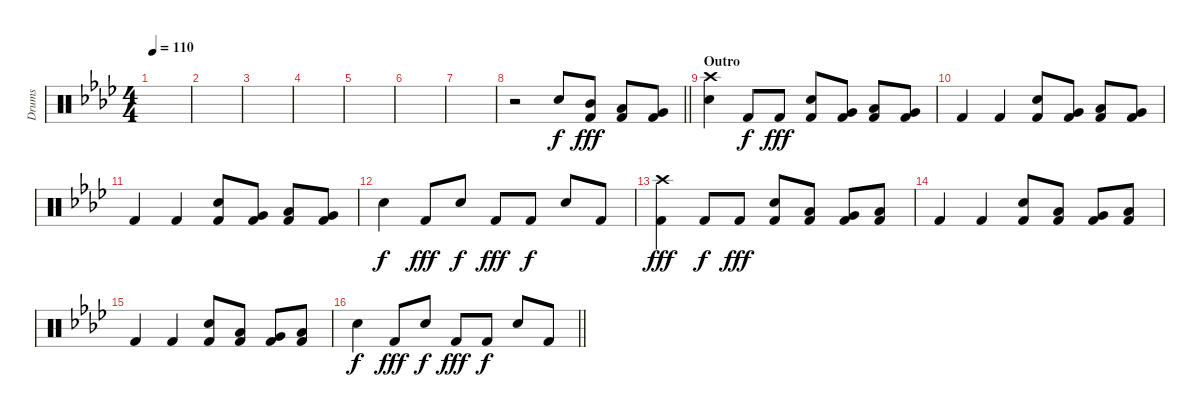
\track ("Drums" "Drums") {instrument percussion}
\staff {score}
\articulation defaults
\ts (4 4)
\tempo 110
\clef neutral
\ks fminor
|
|
|
|
|
|
|
\barLineRight lightlight
r.2 "Electric Snare (hit)".8 ("Mid Tom (hit)" "Kick (hit) 2").8{dy fff} ("Low Tom (hit)" "Kick (hit) 2").8 ("Very Low Tom (hit)" "Kick (hit) 2").8 |
\section ("" "Outro")
("Crash high (hit)" "Electric Snare (hit)").4 "Kick (hit) 2".8{dy f} "Kick (hit) 2".8{dy fff} ("Electric Snare (hit)" "Kick (hit) 2").8 ("Very Low Tom (hit)" "Kick (hit) 2").8 ("Low Floor Tom (hit)" "Kick (hit) 2").8 ("Very Low Tom (hit)" "Kick (hit) 2").8 |
"Kick (hit) 2".4 "Kick (hit) 2".4 ("Electric Snare (hit)" "Kick (hit) 2").8 ("Very Low Tom (hit)" "Kick (hit) 2").8 ("Low Floor Tom (hit)" "Kick (hit) 2").8 ("Very Low Tom (hit)" "Kick (hit) 2").8 |
"Kick (hit) 2".4 "Kick (hit) 2".4 ("Electric Snare (hit)" "Kick (hit) 2").8 ("Very Low Tom (hit)" "Kick (hit) 2").8 ("Low Floor Tom (hit)" "Kick (hit) 2").8 ("Very Low Tom (hit)" "Kick (hit) 2").8 |
"Electric Snare (hit)".4{dy f} "Kick (hit) 2".8{dy fff} "Electric Snare (hit)".8{dy f} "Kick (hit) 2".8{dy fff} "Kick (hit) 2".8{dy f} "Electric Snare (hit)".8 "Kick (hit) 2".8 |
("Crash high (hit)" "Kick (hit) 2").4{dy fff} "Kick (hit) 2".8{dy f} "Kick (hit) 2".8{dy fff} ("Electric Snare (hit)" "Kick (hit) 2").8 ("Low Tom (hit)" "Kick (hit) 2").8 ("Very Low Tom (hit)" "Kick (hit) 2").8 ("Low Tom (hit)" "Kick (hit) 2").8 |
"Kick (hit) 2".4 "Kick (hit) 2".4 ("Electric Snare (hit)" "Kick (hit) 2").8 ("Low Tom (hit)" "Kick (hit) 2").8 ("Very Low Tom (hit)" "Kick (hit) 2").8 ("Low Tom (hit)" "Kick (hit) 2").8 |
"Kick (hit) 2".4 "Kick (hit) 2".4 ("Electric Snare (hit)" "Kick (hit) 2").8 ("Low Tom (hit)" "Kick (hit) 2").8 ("Very Low Tom (hit)" "Kick (hit) 2").8 ("Low Tom (hit)" "Kick (hit) 2").8 |
\barLineRight lightlight "Electric Snare (hit)".4{dy f} "Kick (hit) 2".8{dy fff} "Electric Snare (hit)".8{dy f} "Kick (hit) 2".8{dy fff} "Kick (hit) 2".8{dy f} "Electric Snare (hit)".8 "Kick (hit) 2".8
